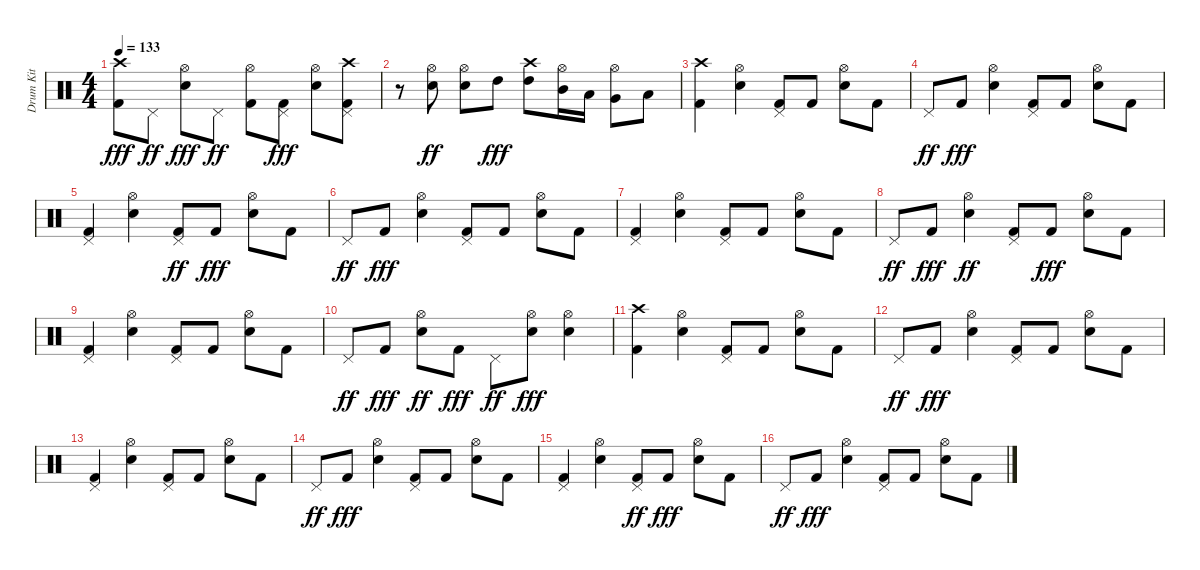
\track ("Drum Kit" "Drum Kit") {instrument percussion}
\staff {score}
\articulation defaults
\ts (4 4)
\tempo 133
\clef neutral
\ks c
("Crash high (hit)" "Kick (hit) 2").8{dy fff} "Pedal Hi-Hat (hit)".8{dy ff} ("Hi-Hat (open)" "Electric Snare (hit)").8{dy fff} "Pedal Hi-Hat (hit)".8{dy ff} ("Kick (hit) 2" "Hi-Hat (open)").8 ("Pedal Hi-Hat (hit)" "Kick (hit) 2").8{dy fff} ("Hi-Hat (open)" "Electric Snare (hit)").8 ("Pedal Hi-Hat (hit)" "Crash high (hit)" "Kick (hit) 2").8 |
r.8 ("Electric Snare (hit)" "Hi-Hat (open)").8{dy ff} ("Electric Snare (hit)" "Hi-Hat (open)").8 "High Tom (hit)".8{dy fff} ("Crash high (hit)" "High Tom (hit)").8 ("Hi-Hat (open)" "Mid Tom (hit)").16 "Low Tom (hit)".16 ("Hi-Hat (open)" "Very Low Tom (hit)").8 "Low Floor Tom (hit)".8 |
("Crash high (hit)" "Kick (hit) 2").4 ("Hi-Hat (open)" "Electric Snare (hit)").4 ("Pedal Hi-Hat (hit)" "Kick (hit) 2").8 "Kick (hit) 2".8 ("Hi-Hat (open)" "Electric Snare (hit)").8 "Kick (hit) 2".8 |
"Pedal Hi-Hat (hit)".8{dy ff} "Kick (hit) 2".8{dy fff} ("Hi-Hat (open)" "Electric Snare (hit)").4 ("Pedal Hi-Hat (hit)" "Kick (hit) 2").8 "Kick (hit) 2".8 ("Hi-Hat (open)" "Electric Snare (hit)").8 "Kick (hit) 2".8 |
("Pedal Hi-Hat (hit)" "Kick (hit) 2").4 ("Hi-Hat (open)" "Electric Snare (hit)").4 ("Kick (hit) 2" "Pedal Hi-Hat (hit)").8{dy ff} "Kick (hit) 2".8{dy fff} ("Hi-Hat (open)" "Electric Snare (hit)").8 "Kick (hit) 2".8 |
"Pedal Hi-Hat (hit)".8{dy ff} "Kick (hit) 2".8{dy fff} ("Hi-Hat (open)" "Electric Snare (hit)").4 ("Pedal Hi-Hat (hit)" "Kick (hit) 2").8 "Kick (hit) 2".8 ("Hi-Hat (open)" "Electric Snare (hit)").8 "Kick (hit) 2".8 |
("Pedal Hi-Hat (hit)" "Kick (hit) 2").4 ("Hi-Hat (open)" "Electric Snare (hit)").4 ("Pedal Hi-Hat (hit)" "Kick (hit) 2").8 "Kick (hit) 2".8 ("Hi-Hat (open)" "Electric Snare (hit)").8 "Kick (hit) 2".8 |
"Pedal Hi-Hat (hit)".8{dy ff} "Kick (hit) 2".8{dy fff} ("Electric Snare (hit)" "Hi-Hat (open)").4{dy ff} ("Kick (hit) 2" "Pedal Hi-Hat (hit)").8 "Kick (hit) 2".8{dy fff} ("Hi-Hat (open)" "Electric Snare (hit)").8 "Kick (hit) 2".8 |
("Pedal Hi-Hat (hit)" "Kick (hit) 2").4 ("Hi-Hat (open)" "Electric Snare (hit)").4 ("Pedal Hi-Hat (hit)" "Kick (hit) 2").8 "Kick (hit) 2".8 ("Hi-Hat (open)" "Electric Snare (hit)").8 "Kick (hit) 2".8 |
"Pedal Hi-Hat (hit)".8{dy ff} "Kick (hit) 2".8{dy fff} ("Electric Snare (hit)" "Hi-Hat (open)").8{dy ff} "Kick (hit) 2".8{dy fff} "Pedal Hi-Hat (hit)".8{dy ff} ("Hi-Hat (open)" "Electric Snare (hit)").8{dy fff} ("Hi-Hat (open)" "Electric Snare (hit)").4 |
("Crash high (hit)" "Kick (hit) 2").4 ("Hi-Hat (open)" "Electric Snare (hit)").4 ("Pedal Hi-Hat (hit)" "Kick (hit) 2").8 "Kick (hit) 2".8 ("Hi-Hat (open)" "Electric Snare (hit)").8 "Kick (hit) 2".8 |
"Pedal Hi-Hat (hit)".8{dy ff} "Kick (hit) 2".8{dy fff} ("Hi-Hat (open)" "Electric Snare (hit)").4 ("Pedal Hi-Hat (hit)" "Kick (hit) 2").8 "Kick (hit) 2".8 ("Hi-Hat (open)" "Electric Snare (hit)").8 "Kick (hit) 2".8 |
("Pedal Hi-Hat (hit)" "Kick (hit) 2").4 ("Hi-Hat (open)" "Electric Snare (hit)").4 ("Pedal Hi-Hat (hit)" "Kick (hit) 2").8 "Kick (hit) 2".8 ("Hi-Hat (open)" "Electric Snare (hit)").8 "Kick (hit) 2".8 |
"Pedal Hi-Hat (hit)".8{dy ff} "Kick (hit) 2".8{dy fff} ("Hi-Hat (open)" "Electric Snare (hit)").4 ("Pedal Hi-Hat (hit)" "Kick (hit) 2").8 "Kick (hit) 2".8 ("Hi-Hat (open)" "Electric Snare (hit)").8 "Kick (hit) 2".8 |
("Pedal Hi-Hat (hit)" "Kick (hit) 2").4 ("Hi-Hat (open)" "Electric Snare (hit)").4 ("Kick (hit) 2" "Pedal Hi-Hat (hit)").8{dy ff} "Kick (hit) 2".8{dy fff} ("Hi-Hat (open)" "Electric Snare (hit)").8 "Kick (hit) 2".8 |
"Pedal Hi-Hat (hit)".8{dy ff} "Kick (hit) 2".8{dy fff} ("Hi-Hat (open)" "Electric Snare (hit)").4 ("Pedal Hi-Hat (hit)" "Kick (hit) 2").8 "Kick (hit) 2".8 ("Hi-Hat (open)" "Electric Snare (hit)").8 "Kick (hit) 2".8
